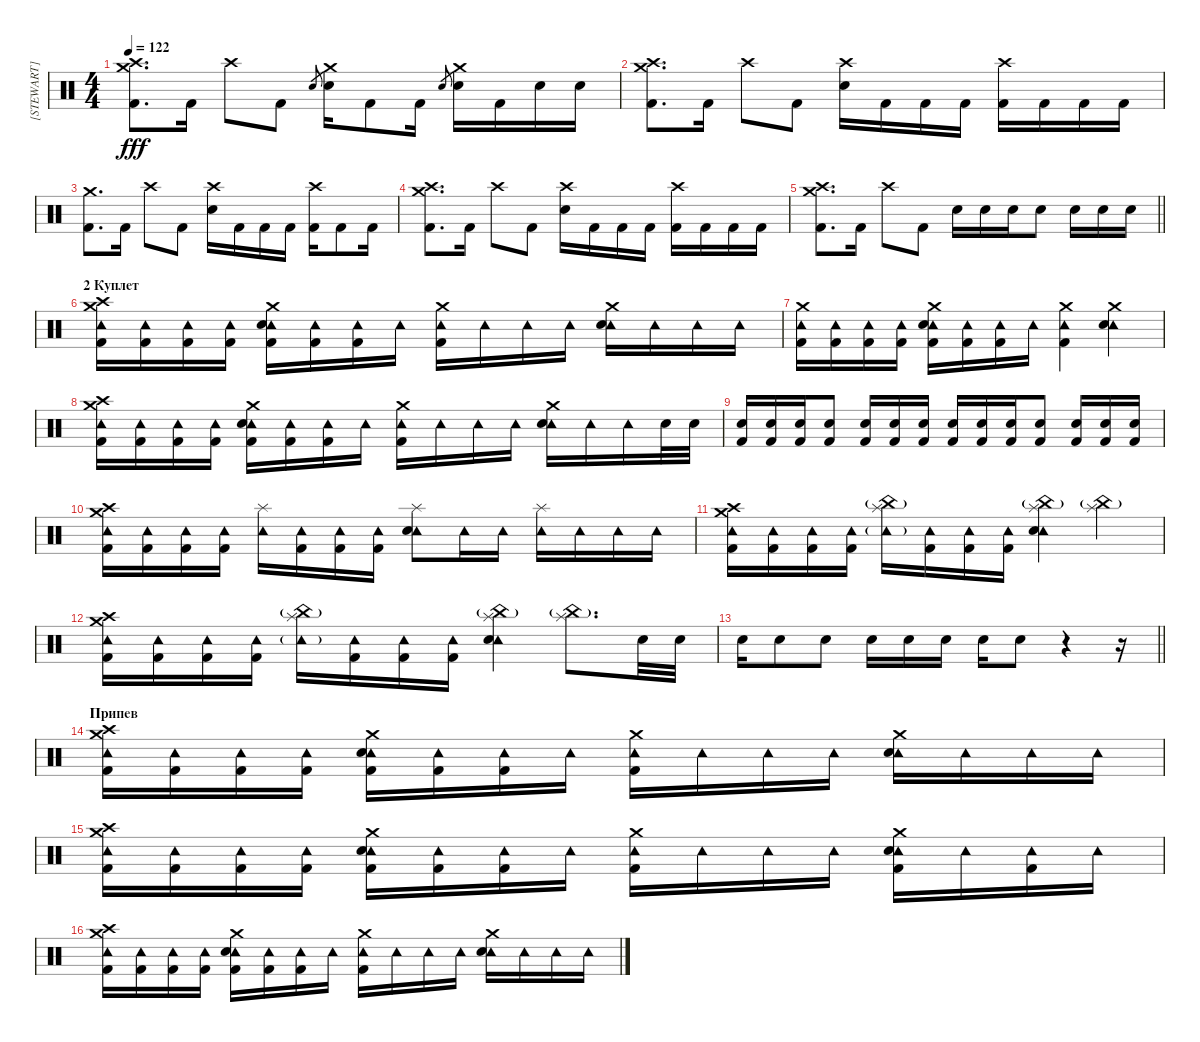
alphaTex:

\track ("[STEWART]" "[STEWART]") {instrument percussion}
\staff {score}
\articulation defaults
\ts (4 4)
\tempo 122
\clef neutral
\ks c
("Crash medium (hit)" "Crash high (hit)" "Kick (hit) 2").8{d dy fff} "Kick (hit) 2".16 "Crash high (hit)".8 "Kick (hit) 2".8 "Electric Snare (hit)".8{gr} ("Crash medium (hit)" "Electric Snare (hit)").16 "Kick (hit) 2".8 "Kick (hit) 2".16 "Electric Snare (hit)".8{gr} ("Crash medium (hit)" "Electric Snare (hit)").16 "Kick (hit) 2".16 "Electric Snare (hit)".16 "Electric Snare (hit)".16 |
("Crash medium (hit)" "Crash high (hit)" "Kick (hit) 2").8{d} "Kick (hit) 2".16 "Crash high (hit)".8 "Kick (hit) 2".8 ("Crash high (hit)" "Electric Snare (hit)").16 "Kick (hit) 2".16 "Kick (hit) 2".16 "Kick (hit) 2".16 ("Crash high (hit)" "Kick (hit) 2").16 "Kick (hit) 2".16 "Kick (hit) 2".16 "Kick (hit) 2".16 |
("Crash medium (hit)" "Kick (hit) 2").8{d} "Kick (hit) 2".16 "Crash high (hit)".8 "Kick (hit) 2".8 ("Crash high (hit)" "Electric Snare (hit)").16 "Kick (hit) 2".16 "Kick (hit) 2".16 "Kick (hit) 2".16 ("Crash high (hit)" "Kick (hit) 2").16 "Kick (hit) 2".8 "Kick (hit) 2".16 |
("Crash medium (hit)" "Crash high (hit)" "Kick (hit) 2").8{d} "Kick (hit) 2".16 "Crash high (hit)".8 "Kick (hit) 2".8 ("Crash high (hit)" "Electric Snare (hit)").16 "Kick (hit) 2".16 "Kick (hit) 2".16 "Kick (hit) 2".16 ("Crash high (hit)" "Kick (hit) 2").16 "Kick (hit) 2".16 "Kick (hit) 2".16 "Kick (hit) 2".16 |
\barLineRight lightlight
("Crash medium (hit)" "Crash high (hit)" "Kick (hit) 2").8{d} "Kick (hit) 2".16 "Crash high (hit)".8 "Kick (hit) 2".8 "Electric Snare (hit)".16 "Electric Snare (hit)".16 "Electric Snare (hit)".16 "Electric Snare (hit)".8 "Electric Snare (hit)".16 "Electric Snare (hit)".16 "Electric Snare (hit)".16 |
\section ("" "2 Куплет")
("Crash medium (hit)" "Crash high (hit)" "Tambourine (hit)" "Kick (hit) 2").16 ("Tambourine (hit)" "Kick (hit) 2").16 ("Tambourine (hit)" "Kick (hit) 2").16 ("Tambourine (hit)" "Kick (hit) 2").16 ("Crash medium (hit)" "Tambourine (hit)" "Electric Snare (hit)" "Kick (hit) 2").16 ("Tambourine (hit)" "Kick (hit) 2").16 ("Tambourine (hit)" "Kick (hit) 2").16 "Tambourine (hit)".16 ("Crash medium (hit)" "Tambourine (hit)" "Kick (hit) 2").16 "Tambourine (hit)".16 "Tambourine (hit)".16 "Tambourine (hit)".16 ("Crash medium (hit)" "Tambourine (hit)" "Electric Snare (hit)").16 "Tambourine (hit)".16 "Tambourine (hit)".16 "Tambourine (hit)".16 |
("Crash medium (hit)" "Tambourine (hit)" "Kick (hit) 2").16 ("Tambourine (hit)" "Kick (hit) 2").16 ("Tambourine (hit)" "Kick (hit) 2").16 ("Tambourine (hit)" "Kick (hit) 2").16 ("Crash medium (hit)" "Tambourine (hit)" "Electric Snare (hit)" "Kick (hit) 2").16 ("Tambourine (hit)" "Kick (hit) 2").16 ("Tambourine (hit)" "Kick (hit) 2").16 "Tambourine (hit)".16 ("Crash medium (hit)" "Tambourine (hit)" "Kick (hit) 2").4 ("Crash medium (hit)" "Tambourine (hit)" "Electric Snare (hit)").4 |
("Crash medium (hit)" "Crash high (hit)" "Tambourine (hit)" "Kick (hit) 2").16 ("Tambourine (hit)" "Kick (hit) 2").16 ("Tambourine (hit)" "Kick (hit) 2").16 ("Tambourine (hit)" "Kick (hit) 2").16 ("Crash medium (hit)" "Tambourine (hit)" "Electric Snare (hit)" "Kick (hit) 2").16 ("Tambourine (hit)" "Kick (hit) 2").16 ("Tambourine (hit)" "Kick (hit) 2").16 "Tambourine (hit)".16 ("Crash medium (hit)" "Tambourine (hit)" "Kick (hit) 2").16 "Tambourine (hit)".16 "Tambourine (hit)".16 "Tambourine (hit)".16 ("Crash medium (hit)" "Tambourine (hit)" "Electric Snare (hit)").16 "Tambourine (hit)".16 "Tambourine (hit)".16 "Electric Snare (hit)".32 "Electric Snare (hit)".32 |
("Electric Snare (hit)" "Kick (hit) 2").16 ("Electric Snare (hit)" "Kick (hit) 2").16 ("Electric Snare (hit)" "Kick (hit) 2").16 ("Electric Snare (hit)" "Kick (hit) 2").8 ("Electric Snare (hit)" "Kick (hit) 2").16 ("Electric Snare (hit)" "Kick (hit) 2").16 ("Electric Snare (hit)" "Kick (hit) 2").16 ("Electric Snare (hit)" "Kick (hit) 2").16 ("Electric Snare (hit)" "Kick (hit) 2").16 ("Electric Snare (hit)" "Kick (hit) 2").16 ("Electric Snare (hit)" "Kick (hit) 2").8 ("Electric Snare (hit)" "Kick (hit) 2").16 ("Electric Snare (hit)" "Kick (hit) 2").16 ("Electric Snare (hit)" "Kick (hit) 2").16 |
("Crash medium (hit)" "Crash high (hit)" "Tambourine (hit)" "Kick (hit) 2").16 ("Tambourine (hit)" "Kick (hit) 2").16 ("Tambourine (hit)" "Kick (hit) 2").16 ("Tambourine (hit)" "Kick (hit) 2").16 ("Splash (hit)" "Tambourine (hit)").16 ("Tambourine (hit)" "Kick (hit) 2").16 ("Tambourine (hit)" "Kick (hit) 2").16 ("Tambourine (hit)" "Kick (hit) 2").16 ("Splash (hit)" "Tambourine (hit)" "Electric Snare (hit)").8 "Tambourine (hit)".16 "Tambourine (hit)".16 ("Splash (hit)" "Tambourine (hit)").16 "Tambourine (hit)".16 "Tambourine (hit)".16 "Tambourine (hit)".16 |
("Crash medium (hit)" "Crash high (hit)" "Tambourine (hit)" "Kick (hit) 2").16 ("Tambourine (hit)" "Kick (hit) 2").16 ("Tambourine (hit)" "Kick (hit) 2").16 ("Tambourine (hit)" "Kick (hit) 2").16 ("China (hit)"{g} "Splash (hit)" "Tambourine (hit)"{g}).16 ("Tambourine (hit)" "Kick (hit) 2").16 ("Tambourine (hit)" "Kick (hit) 2").16 ("Tambourine (hit)" "Kick (hit) 2").16 ("China (hit)"{g} "Splash (hit)" "Tambourine (hit)" "Electric Snare (hit)").4 ("China (hit)"{g} "Splash (hit)").4 |
("Crash medium (hit)" "Crash high (hit)" "Tambourine (hit)" "Kick (hit) 2").16 ("Tambourine (hit)" "Kick (hit) 2").16 ("Tambourine (hit)" "Kick (hit) 2").16 ("Tambourine (hit)" "Kick (hit) 2").16 ("China (hit)"{g} "Splash (hit)" "Tambourine (hit)"{g}).16 ("Tambourine (hit)" "Kick (hit) 2").16 ("Tambourine (hit)" "Kick (hit) 2").16 ("Tambourine (hit)" "Kick (hit) 2").16 ("China (hit)"{g} "Splash (hit)" "Tambourine (hit)" "Electric Snare (hit)").4 ("China (hit)"{g} "Splash (hit)").8{d} "Electric Snare (hit)".32 "Electric Snare (hit)".32 |
\barLineRight lightlight "Electric Snare (hit)".16 "Electric Snare (hit)".8 "Electric Snare (hit)".8 "Electric Snare (hit)".16 "Electric Snare (hit)".16 "Electric Snare (hit)".16 "Electric Snare (hit)".16 "Electric Snare (hit)".8
r.4 r.16 |
\section ("" "Припев")
("Crash medium (hit)" "Crash high (hit)" "Tambourine (hit)" "Kick (hit) 2").16 ("Tambourine (hit)" "Kick (hit) 2").16 ("Tambourine (hit)" "Kick (hit) 2").16 ("Tambourine (hit)" "Kick (hit) 2").16 ("Crash medium (hit)" "Tambourine (hit)" "Electric Snare (hit)" "Kick (hit) 2").16 ("Tambourine (hit)" "Kick (hit) 2").16 ("Tambourine (hit)" "Kick (hit) 2").16 "Tambourine (hit)".16 ("Crash medium (hit)" "Tambourine (hit)" "Kick (hit) 2").16 "Tambourine (hit)".16 "Tambourine (hit)".16 "Tambourine (hit)".16 ("Crash medium (hit)" "Tambourine (hit)" "Electric Snare (hit)").16 "Tambourine (hit)".16 "Tambourine (hit)".16 "Tambourine (hit)".16 |
("Crash medium (hit)" "Crash high (hit)" "Tambourine (hit)" "Kick (hit) 2").16 ("Tambourine (hit)" "Kick (hit) 2").16 ("Tambourine (hit)" "Kick (hit) 2").16 ("Tambourine (hit)" "Kick (hit) 2").16 ("Crash medium (hit)" "Tambourine (hit)" "Electric Snare (hit)" "Kick (hit) 2").16 ("Tambourine (hit)" "Kick (hit) 2").16 ("Tambourine (hit)" "Kick (hit) 2").16 "Tambourine (hit)".16 ("Crash medium (hit)" "Tambourine (hit)" "Kick (hit) 2").16 "Tambourine (hit)".16 "Tambourine (hit)".16 "Tambourine (hit)".16 ("Crash medium (hit)" "Tambourine (hit)" "Electric Snare (hit)" "Kick (hit) 2").16 "Tambourine (hit)".16 ("Tambourine (hit)" "Kick (hit) 2").16 "Tambourine (hit)".16 |
("Crash medium (hit)" "Crash high (hit)" "Tambourine (hit)" "Kick (hit) 2").16 ("Tambourine (hit)" "Kick (hit) 2").16 ("Tambourine (hit)" "Kick (hit) 2").16 ("Tambourine (hit)" "Kick (hit) 2").16 ("Crash medium (hit)" "Tambourine (hit)" "Electric Snare (hit)" "Kick (hit) 2").16 ("Tambourine (hit)" "Kick (hit) 2").16 ("Tambourine (hit)" "Kick (hit) 2").16 "Tambourine (hit)".16 ("Crash medium (hit)" "Tambourine (hit)" "Kick (hit) 2").16 "Tambourine (hit)".16 "Tambourine (hit)".16 "Tambourine (hit)".16 ("Crash medium (hit)" "Tambourine (hit)" "Electric Snare (hit)").16 "Tambourine (hit)".16 "Tambourine (hit)".16 "Tambourine (hit)".16
